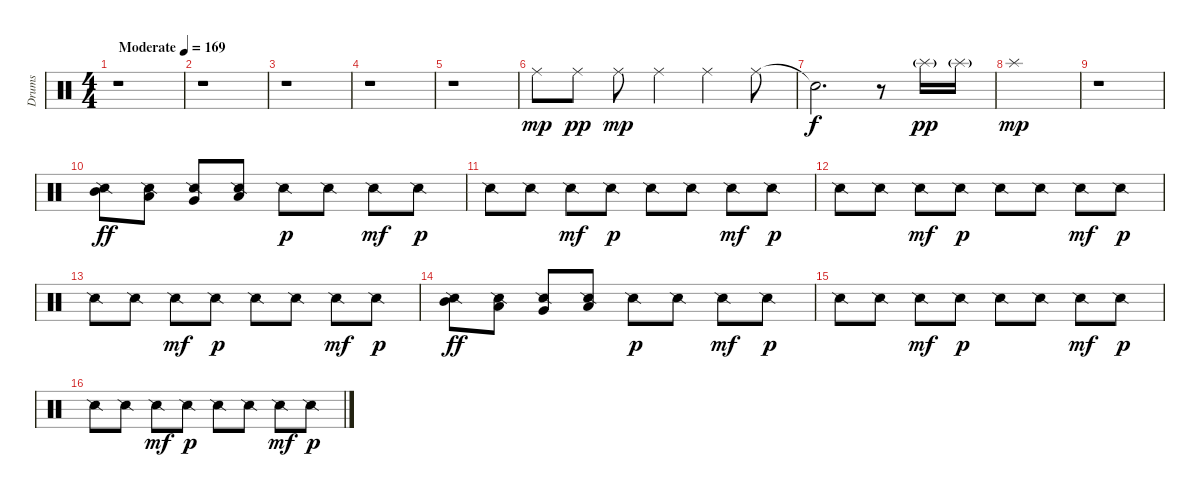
\track ("Drums" "Drums") {instrument percussion}
\staff {score}
\articulation defaults
\ts (4 4)
\tempo (169 "Moderate")
\clef neutral
\ks c
r.1{dy mp} |
r.1 |
r.1 |
r.1 |
r.1 |
"Ride (middle)".8 "Ride (middle)".8{dy pp} "Ride (middle)".8{dy mp} "Ride (middle)".4 "Ride (middle)".4 "Ride (middle)".8 |
"Snare (hit)"{t}.2{d dy f} r.8 "Splash (hit)"{g}.16{dy pp} "Splash (hit)"{g}.16 |
"Splash (hit)".1{dy mp} |
r.1 |
("Snare (side stick) 2" "Mid Tom (hit)").8{dy ff} ("Snare (side stick) 2" "Low Tom (hit)").8 ("Snare (side stick) 2" "Very Low Tom (hit)").8 ("Snare (side stick) 2" "Low Floor Tom (hit)").8 "Snare (side stick) 2".8{dy p} "Snare (side stick) 2".8 "Snare (side stick) 2".8{dy mf} "Snare (side stick) 2".8{dy p} |
"Snare (side stick) 2".8 "Snare (side stick) 2".8 "Snare (side stick) 2".8{dy mf} "Snare (side stick) 2".8{dy p} "Snare (side stick) 2".8 "Snare (side stick) 2".8 "Snare (side stick) 2".8{dy mf} "Snare (side stick) 2".8{dy p} |
"Snare (side stick) 2".8 "Snare (side stick) 2".8 "Snare (side stick) 2".8{dy mf} "Snare (side stick) 2".8{dy p} "Snare (side stick) 2".8 "Snare (side stick) 2".8 "Snare (side stick) 2".8{dy mf} "Snare (side stick) 2".8{dy p} |
"Snare (side stick) 2".8 "Snare (side stick) 2".8 "Snare (side stick) 2".8{dy mf} "Snare (side stick) 2".8{dy p} "Snare (side stick) 2".8 "Snare (side stick) 2".8 "Snare (side stick) 2".8{dy mf} "Snare (side stick) 2".8{dy p} |
("Snare (side stick) 2" "Mid Tom (hit)").8{dy ff} ("Snare (side stick) 2" "Low Tom (hit)").8 ("Snare (side stick) 2" "Very Low Tom (hit)").8 ("Snare (side stick) 2" "Low Floor Tom (hit)").8 "Snare (side stick) 2".8{dy p} "Snare (side stick) 2".8 "Snare (side stick) 2".8{dy mf} "Snare (side stick) 2".8{dy p} |
"Snare (side stick) 2".8 "Snare (side stick) 2".8 "Snare (side stick) 2".8{dy mf} "Snare (side stick) 2".8{dy p} "Snare (side stick) 2".8 "Snare (side stick) 2".8 "Snare (side stick) 2".8{dy mf} "Snare (side stick) 2".8{dy p} |
"Snare (side stick) 2".8 "Snare (side stick) 2".8 "Snare (side stick) 2".8{dy mf} "Snare (side stick) 2".8{dy p} "Snare (side stick) 2".8 "Snare (side stick) 2".8 "Snare (side stick) 2".8{dy mf} "Snare (side stick) 2".8{dy p}
